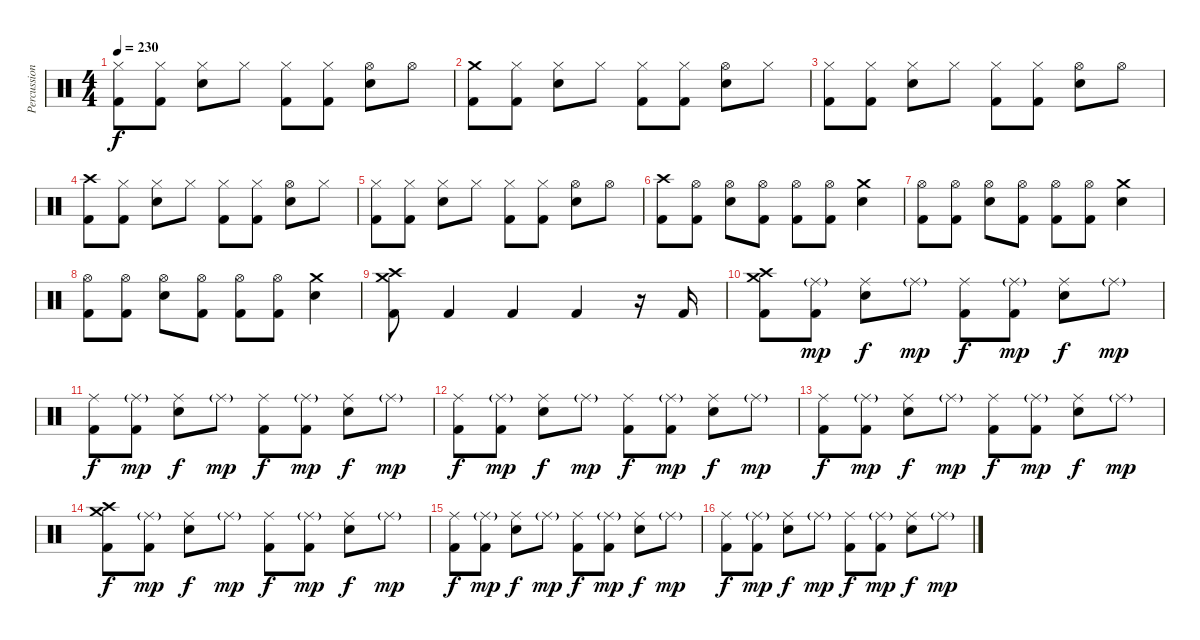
\track ("Percussion" "Percussion") {instrument percussion}
\staff {score}
\articulation defaults
\ts (4 4)
\tempo 230
\clef neutral
\ks c
("Hi-Hat (closed)" "Kick (hit) 2").8{dy f} ("Hi-Hat (closed)" "Kick (hit) 2").8 ("Hi-Hat (closed)" "Snare (hit) 2").8 "Hi-Hat (closed)".8 ("Hi-Hat (closed)" "Kick (hit) 2").8 ("Hi-Hat (closed)" "Kick (hit) 2").8 ("Hi-Hat (open)" "Snare (hit) 2").8 "Hi-Hat (open)".8 |
("Crash medium (hit)" "Kick (hit) 2").8 ("Hi-Hat (closed)" "Kick (hit) 2").8 ("Hi-Hat (closed)" "Snare (hit) 2").8 "Hi-Hat (closed)".8 ("Hi-Hat (closed)" "Kick (hit) 2").8 ("Hi-Hat (closed)" "Kick (hit) 2").8 ("Hi-Hat (open)" "Snare (hit) 2").8 "Hi-Hat (closed)".8 |
("Hi-Hat (closed)" "Kick (hit) 2").8 ("Hi-Hat (closed)" "Kick (hit) 2").8 ("Hi-Hat (closed)" "Snare (hit) 2").8 "Hi-Hat (closed)".8 ("Hi-Hat (closed)" "Kick (hit) 2").8 ("Hi-Hat (closed)" "Kick (hit) 2").8 ("Hi-Hat (open)" "Snare (hit) 2").8 "Hi-Hat (open)".8 |
("Crash high (hit)" "Kick (hit) 2").8 ("Hi-Hat (closed)" "Kick (hit) 2").8 ("Hi-Hat (closed)" "Snare (hit) 2").8 "Hi-Hat (closed)".8 ("Hi-Hat (closed)" "Kick (hit) 2").8 ("Hi-Hat (closed)" "Kick (hit) 2").8 ("Hi-Hat (open)" "Snare (hit) 2").8 "Hi-Hat (closed)".8 |
("Hi-Hat (closed)" "Kick (hit) 2").8 ("Hi-Hat (closed)" "Kick (hit) 2").8 ("Hi-Hat (closed)" "Snare (hit) 2").8 "Hi-Hat (closed)".8 ("Hi-Hat (closed)" "Kick (hit) 2").8 ("Hi-Hat (closed)" "Kick (hit) 2").8 ("Hi-Hat (open)" "Snare (hit) 2").8 "Hi-Hat (open)".8 |
("Crash high (hit)" "Kick (hit) 2").8 ("Hi-Hat (open)" "Kick (hit) 2").8 ("Hi-Hat (open)" "Snare (hit) 2").8 ("Hi-Hat (open)" "Kick (hit) 2").8 ("Hi-Hat (open)" "Kick (hit) 2").8 ("Hi-Hat (open)" "Kick (hit) 2").8 ("Crash medium (hit)" "Snare (hit) 2").4 |
("Hi-Hat (open)" "Kick (hit) 2").8 ("Hi-Hat (open)" "Kick (hit) 2").8 ("Hi-Hat (open)" "Snare (hit) 2").8 ("Hi-Hat (open)" "Kick (hit) 2").8 ("Hi-Hat (open)" "Kick (hit) 2").8 ("Hi-Hat (open)" "Kick (hit) 2").8 ("Crash medium (hit)" "Snare (hit) 2").4 |
("Hi-Hat (open)" "Kick (hit) 2").8 ("Hi-Hat (open)" "Kick (hit) 2").8 ("Hi-Hat (open)" "Snare (hit) 2").8 ("Hi-Hat (open)" "Kick (hit) 2").8 ("Hi-Hat (open)" "Kick (hit) 2").8 ("Hi-Hat (open)" "Kick (hit) 2").8 ("Crash medium (hit)" "Snare (hit) 2").4 |
("Crash high (hit)" "Crash medium (hit)" "Kick (hit) 2").8 "Kick (hit) 2".4 "Kick (hit) 2".4 "Kick (hit) 2".4 r.16 "Kick (hit) 2".16 |
("Crash medium (hit)" "Crash high (hit)" "Kick (hit) 2").8 ("Ride (middle)"{g} "Kick (hit) 2").8{dy mp} ("Ride (middle)" "Snare (hit) 2").8{dy f} "Ride (middle)"{g}.8{dy mp} ("Ride (middle)" "Kick (hit) 2").8{dy f} ("Ride (middle)"{g} "Kick (hit) 2").8{dy mp} ("Ride (middle)" "Snare (hit) 2").8{dy f} "Ride (middle)"{g}.8{dy mp} |
("Ride (middle)" "Kick (hit) 2").8{dy f} ("Ride (middle)"{g} "Kick (hit) 2").8{dy mp} ("Ride (middle)" "Snare (hit) 2").8{dy f} "Ride (middle)"{g}.8{dy mp} ("Ride (middle)" "Kick (hit) 2").8{dy f} ("Ride (middle)"{g} "Kick (hit) 2").8{dy mp} ("Ride (middle)" "Snare (hit) 2").8{dy f} "Ride (middle)"{g}.8{dy mp} |
("Ride (middle)" "Kick (hit) 2").8{dy f} ("Ride (middle)"{g} "Kick (hit) 2").8{dy mp} ("Ride (middle)" "Snare (hit) 2").8{dy f} "Ride (middle)"{g}.8{dy mp} ("Ride (middle)" "Kick (hit) 2").8{dy f} ("Ride (middle)"{g} "Kick (hit) 2").8{dy mp} ("Ride (middle)" "Snare (hit) 2").8{dy f} "Ride (middle)"{g}.8{dy mp} |
("Ride (middle)" "Kick (hit) 2").8{dy f} ("Ride (middle)"{g} "Kick (hit) 2").8{dy mp} ("Ride (middle)" "Snare (hit) 2").8{dy f} "Ride (middle)"{g}.8{dy mp} ("Ride (middle)" "Kick (hit) 2").8{dy f} ("Ride (middle)"{g} "Kick (hit) 2").8{dy mp} ("Ride (middle)" "Snare (hit) 2").8{dy f} "Ride (middle)"{g}.8{dy mp} |
("Crash medium (hit)" "Crash high (hit)" "Kick (hit) 2").8{dy f} ("Ride (middle)"{g} "Kick (hit) 2").8{dy mp} ("Ride (middle)" "Snare (hit) 2").8{dy f} "Ride (middle)"{g}.8{dy mp} ("Ride (middle)" "Kick (hit) 2").8{dy f} ("Ride (middle)"{g} "Kick (hit) 2").8{dy mp} ("Ride (middle)" "Snare (hit) 2").8{dy f} "Ride (middle)"{g}.8{dy mp} |
("Ride (middle)" "Kick (hit) 2").8{dy f} ("Ride (middle)"{g} "Kick (hit) 2").8{dy mp} ("Ride (middle)" "Snare (hit) 2").8{dy f} "Ride (middle)"{g}.8{dy mp} ("Ride (middle)" "Kick (hit) 2").8{dy f} ("Ride (middle)"{g} "Kick (hit) 2").8{dy mp} ("Ride (middle)" "Snare (hit) 2").8{dy f} "Ride (middle)"{g}.8{dy mp} |
("Ride (middle)" "Kick (hit) 2").8{dy f} ("Ride (middle)"{g} "Kick (hit) 2").8{dy mp} ("Ride (middle)" "Snare (hit) 2").8{dy f} "Ride (middle)"{g}.8{dy mp} ("Ride (middle)" "Kick (hit) 2").8{dy f} ("Ride (middle)"{g} "Kick (hit) 2").8{dy mp} ("Ride (middle)" "Snare (hit) 2").8{dy f} "Ride (middle)"{g}.8{dy mp}
